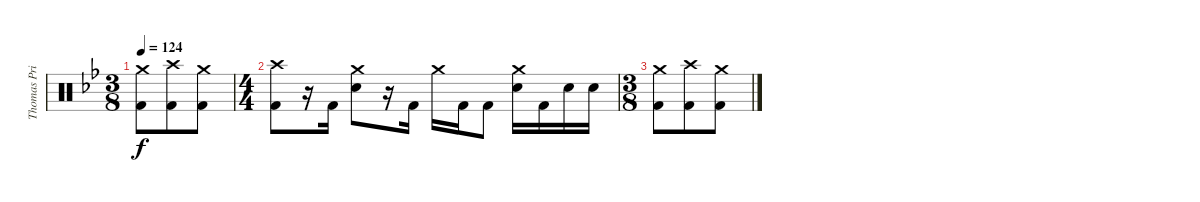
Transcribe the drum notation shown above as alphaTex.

\track ("Thomas Pridgen" "Thomas Pri") {instrument percussion}
\staff {score}
\articulation defaults
\ts (3 8)
\tempo 124
\clef neutral
\ks gminor
("Crash medium (hit)" "Kick (hit) 2").8{dy f} ("Crash high (hit)" "Kick (hit) 2").8 ("Crash medium (hit)" "Kick (hit) 2").8 |
\ts (4 4)
("Crash high (hit)" "Kick (hit) 2").8 r.16 "Kick (hit) 2".16 ("Crash medium (hit)" "Electric Snare (hit)").8 r.16 "Kick (hit) 2".16 "Crash medium (hit)".16 "Kick (hit) 2".16 "Kick (hit) 2".8 ("Crash medium (hit)" "Electric Snare (hit)").16 "Kick (hit) 2".16 "Electric Snare (hit)".16 "Electric Snare (hit)".16 |
\ts (3 8)
("Crash medium (hit)" "Kick (hit) 2").8 ("Crash high (hit)" "Kick (hit) 2").8 ("Crash medium (hit)" "Kick (hit) 2").8
